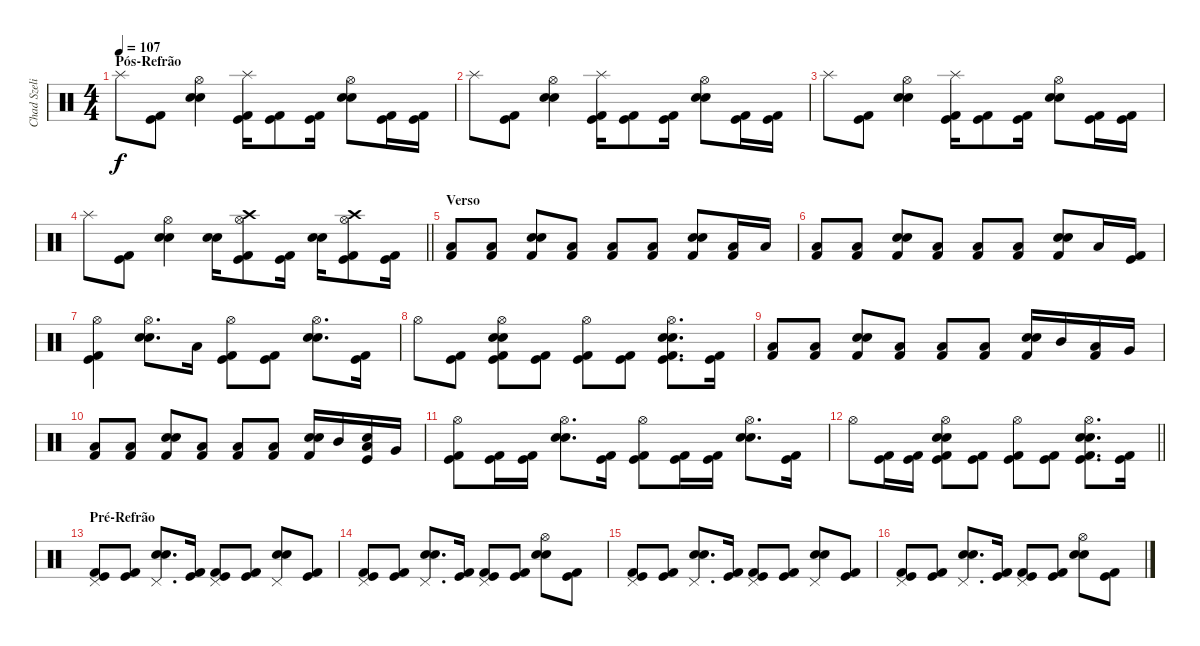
\track ("Chad Szeliga" "Chad Szeli") {instrument percussion}
\staff {score}
\articulation defaults
\ts (4 4)
\section ("" "Pós-Refrão")
\tempo 107
\clef neutral
\ks c "Splash (hit)".8{dy f}
("Kick (hit) 2" "Kick (hit)").8 ("Snare (hit) 2" "Snare (hit) 2" "Hi-Hat (open)").4 ("Kick (hit) 2" "Kick (hit)" "Splash (hit)").16 ("Kick (hit) 2" "Kick (hit)").8 ("Kick (hit) 2" "Kick (hit)").16 ("Snare (hit) 2" "Snare (hit) 2" "Hi-Hat (open)").8 ("Kick (hit) 2" "Kick (hit)").16 ("Kick (hit) 2" "Kick (hit)").16 |
"Splash (hit)".8 ("Kick (hit) 2" "Kick (hit)").8 ("Snare (hit) 2" "Snare (hit) 2" "Hi-Hat (open)").4 ("Kick (hit) 2" "Kick (hit)" "Splash (hit)").16 ("Kick (hit) 2" "Kick (hit)").8 ("Kick (hit) 2" "Kick (hit)").16 ("Snare (hit) 2" "Snare (hit) 2" "Hi-Hat (open)").8 ("Kick (hit) 2" "Kick (hit)").16 ("Kick (hit) 2" "Kick (hit)").16 |
"Splash (hit)".8 ("Kick (hit) 2" "Kick (hit)").8 ("Snare (hit) 2" "Snare (hit) 2" "Hi-Hat (open)").4 ("Kick (hit) 2" "Kick (hit)" "Splash (hit)").16 ("Kick (hit) 2" "Kick (hit)").8 ("Kick (hit) 2" "Kick (hit)").16 ("Snare (hit) 2" "Snare (hit) 2" "Hi-Hat (open)").8 ("Kick (hit) 2" "Kick (hit)").16 ("Kick (hit) 2" "Kick (hit)").16 |
\barLineRight lightlight "Splash (hit)".8
("Kick (hit) 2" "Kick (hit)").8 ("Snare (hit) 2" "Snare (hit) 2" "Hi-Hat (open)").4 ("Snare (hit) 2" "Snare (hit) 2").16 ("Crash high (hit)" "Kick (hit) 2" "Kick (hit)" "Hi-Hat (open)").8 ("Kick (hit) 2" "Kick (hit)").16 ("Snare (hit) 2" "Snare (hit) 2").16 ("Crash high (hit)" "Kick (hit) 2" "Kick (hit)" "Hi-Hat (open)").8 ("Kick (hit) 2" "Kick (hit)").16 |
\section ("" "Verso")
("Kick (hit) 2" "Low Tom (hit)").8 ("Kick (hit) 2" "Low Tom (hit)").8 ("Kick (hit) 2" "Snare (hit) 2" "Snare (hit) 2").8 ("Kick (hit) 2" "Low Tom (hit)").8 ("Kick (hit) 2" "Low Tom (hit)").8 ("Kick (hit) 2" "Low Tom (hit)").8 ("Kick (hit) 2" "Snare (hit) 2" "Snare (hit) 2").8 ("Kick (hit) 2" "Low Tom (hit)").16 "Low Tom (hit)".16 |
("Kick (hit) 2" "Low Tom (hit)").8 ("Kick (hit) 2" "Low Tom (hit)").8 ("Kick (hit) 2" "Snare (hit) 2" "Snare (hit) 2").8 ("Kick (hit) 2" "Low Tom (hit)").8 ("Kick (hit) 2" "Low Tom (hit)").8 ("Kick (hit) 2" "Low Tom (hit)").8 ("Kick (hit) 2" "Snare (hit) 2" "Snare (hit) 2").8 "Low Tom (hit)".16 ("Kick (hit) 2" "Kick (hit)").16 |
("Kick (hit) 2" "Kick (hit)" "Hi-Hat (open)").4 ("Snare (hit) 2" "Snare (hit) 2" "Hi-Hat (open)").8{d} "Low Tom (hit)".16 ("Kick (hit) 2" "Kick (hit)" "Hi-Hat (open)").8 ("Kick (hit) 2" "Kick (hit)").8 ("Snare (hit) 2" "Snare (hit) 2" "Hi-Hat (open)").8{d} ("Kick (hit) 2" "Kick (hit)").16 |
"Hi-Hat (open)".8 ("Kick (hit) 2" "Kick (hit)").8 ("Kick (hit) 2" "Kick (hit)" "Snare (hit) 2" "Snare (hit) 2" "Hi-Hat (open)").8 ("Kick (hit) 2" "Kick (hit)").8 ("Kick (hit) 2" "Kick (hit)" "Hi-Hat (open)").8 ("Kick (hit) 2" "Kick (hit)").8 ("Kick (hit) 2" "Kick (hit)" "Snare (hit) 2" "Snare (hit) 2" "Hi-Hat (open)").8{d} ("Kick (hit) 2" "Kick (hit)").16 |
("Kick (hit) 2" "Low Tom (hit)").8 ("Kick (hit) 2" "Low Tom (hit)").8 ("Kick (hit) 2" "Snare (hit) 2" "Snare (hit) 2").8 ("Kick (hit) 2" "Low Tom (hit)").8 ("Kick (hit) 2" "Low Tom (hit)").8 ("Kick (hit) 2" "Low Tom (hit)").8 ("Kick (hit) 2" "Snare (hit) 2" "Snare (hit) 2").16 "Mid Tom (hit)".16 ("Kick (hit) 2" "Low Tom (hit)").16 "Very Low Tom (hit)".16 |
("Kick (hit) 2" "Low Tom (hit)").8 ("Kick (hit) 2" "Low Tom (hit)").8 ("Kick (hit) 2" "Snare (hit) 2" "Snare (hit) 2").8 ("Kick (hit) 2" "Low Tom (hit)").8 ("Kick (hit) 2" "Low Tom (hit)").8 ("Kick (hit) 2" "Low Tom (hit)").8 ("Kick (hit) 2" "Snare (hit) 2" "Snare (hit) 2").16 "Mid Tom (hit)".16 ("Snare (hit) 2" "Kick (hit)" "Low Tom (hit)").16 "Very Low Tom (hit)".16 |
("Kick (hit) 2" "Kick (hit)" "Hi-Hat (open)").8 ("Kick (hit) 2" "Kick (hit)").16 ("Kick (hit) 2" "Kick (hit)").16 ("Snare (hit) 2" "Snare (hit) 2" "Hi-Hat (open)").8{d} ("Kick (hit) 2" "Kick (hit)").16 ("Kick (hit) 2" "Kick (hit)" "Hi-Hat (open)").8 ("Kick (hit) 2" "Kick (hit)").16 ("Kick (hit) 2" "Kick (hit)").16 ("Snare (hit) 2" "Snare (hit) 2" "Hi-Hat (open)").8{d} ("Kick (hit) 2" "Kick (hit)").16 |
\barLineRight lightlight "Hi-Hat (open)".8
("Kick (hit) 2" "Kick (hit)").16 ("Kick (hit) 2" "Kick (hit)").16 ("Kick (hit) 2" "Kick (hit)" "Snare (hit) 2" "Snare (hit) 2" "Hi-Hat (open)").8 ("Kick (hit) 2" "Kick (hit)").8 ("Kick (hit) 2" "Kick (hit)" "Hi-Hat (open)").8 ("Kick (hit) 2" "Kick (hit)").8 ("Kick (hit) 2" "Kick (hit)" "Snare (hit) 2" "Snare (hit) 2" "Hi-Hat (open)").8{d} ("Kick (hit) 2" "Kick (hit)").16 |
\section ("" "Pré-Refrão")
("Kick (hit) 2" "Kick (hit)" "Pedal Hi-Hat (hit)").8 ("Kick (hit) 2" "Kick (hit)").8 ("Snare (hit) 2" "Snare (hit) 2" "Pedal Hi-Hat (hit)").8{d} ("Kick (hit) 2" "Kick (hit)").16 ("Kick (hit) 2" "Kick (hit)" "Pedal Hi-Hat (hit)").8 ("Kick (hit) 2" "Kick (hit)").8 ("Snare (hit) 2" "Snare (hit) 2" "Pedal Hi-Hat (hit)").8 ("Kick (hit) 2" "Kick (hit)").8 |
("Kick (hit) 2" "Kick (hit)" "Pedal Hi-Hat (hit)").8 ("Kick (hit) 2" "Kick (hit)").8 ("Snare (hit) 2" "Snare (hit) 2" "Pedal Hi-Hat (hit)").8{d} ("Kick (hit) 2" "Kick (hit)").16 ("Kick (hit) 2" "Kick (hit)" "Pedal Hi-Hat (hit)").8 ("Kick (hit) 2" "Kick (hit)").8 ("Snare (hit) 2" "Snare (hit) 2" "Hi-Hat (open)").8 ("Kick (hit) 2" "Kick (hit)").8 |
("Kick (hit) 2" "Kick (hit)" "Pedal Hi-Hat (hit)").8 ("Kick (hit) 2" "Kick (hit)").8 ("Snare (hit) 2" "Snare (hit) 2" "Pedal Hi-Hat (hit)").8{d} ("Kick (hit) 2" "Kick (hit)").16 ("Kick (hit) 2" "Kick (hit)" "Pedal Hi-Hat (hit)").8 ("Kick (hit) 2" "Kick (hit)").8 ("Snare (hit) 2" "Snare (hit) 2" "Pedal Hi-Hat (hit)").8 ("Kick (hit) 2" "Kick (hit)").8 |
("Kick (hit) 2" "Kick (hit)" "Pedal Hi-Hat (hit)").8 ("Kick (hit) 2" "Kick (hit)").8 ("Snare (hit) 2" "Snare (hit) 2" "Pedal Hi-Hat (hit)").8{d} ("Kick (hit) 2" "Kick (hit)").16 ("Kick (hit) 2" "Kick (hit)" "Pedal Hi-Hat (hit)").8 ("Kick (hit) 2" "Kick (hit)").8 ("Snare (hit) 2" "Snare (hit) 2" "Hi-Hat (open)").8 ("Kick (hit) 2" "Kick (hit)").8
